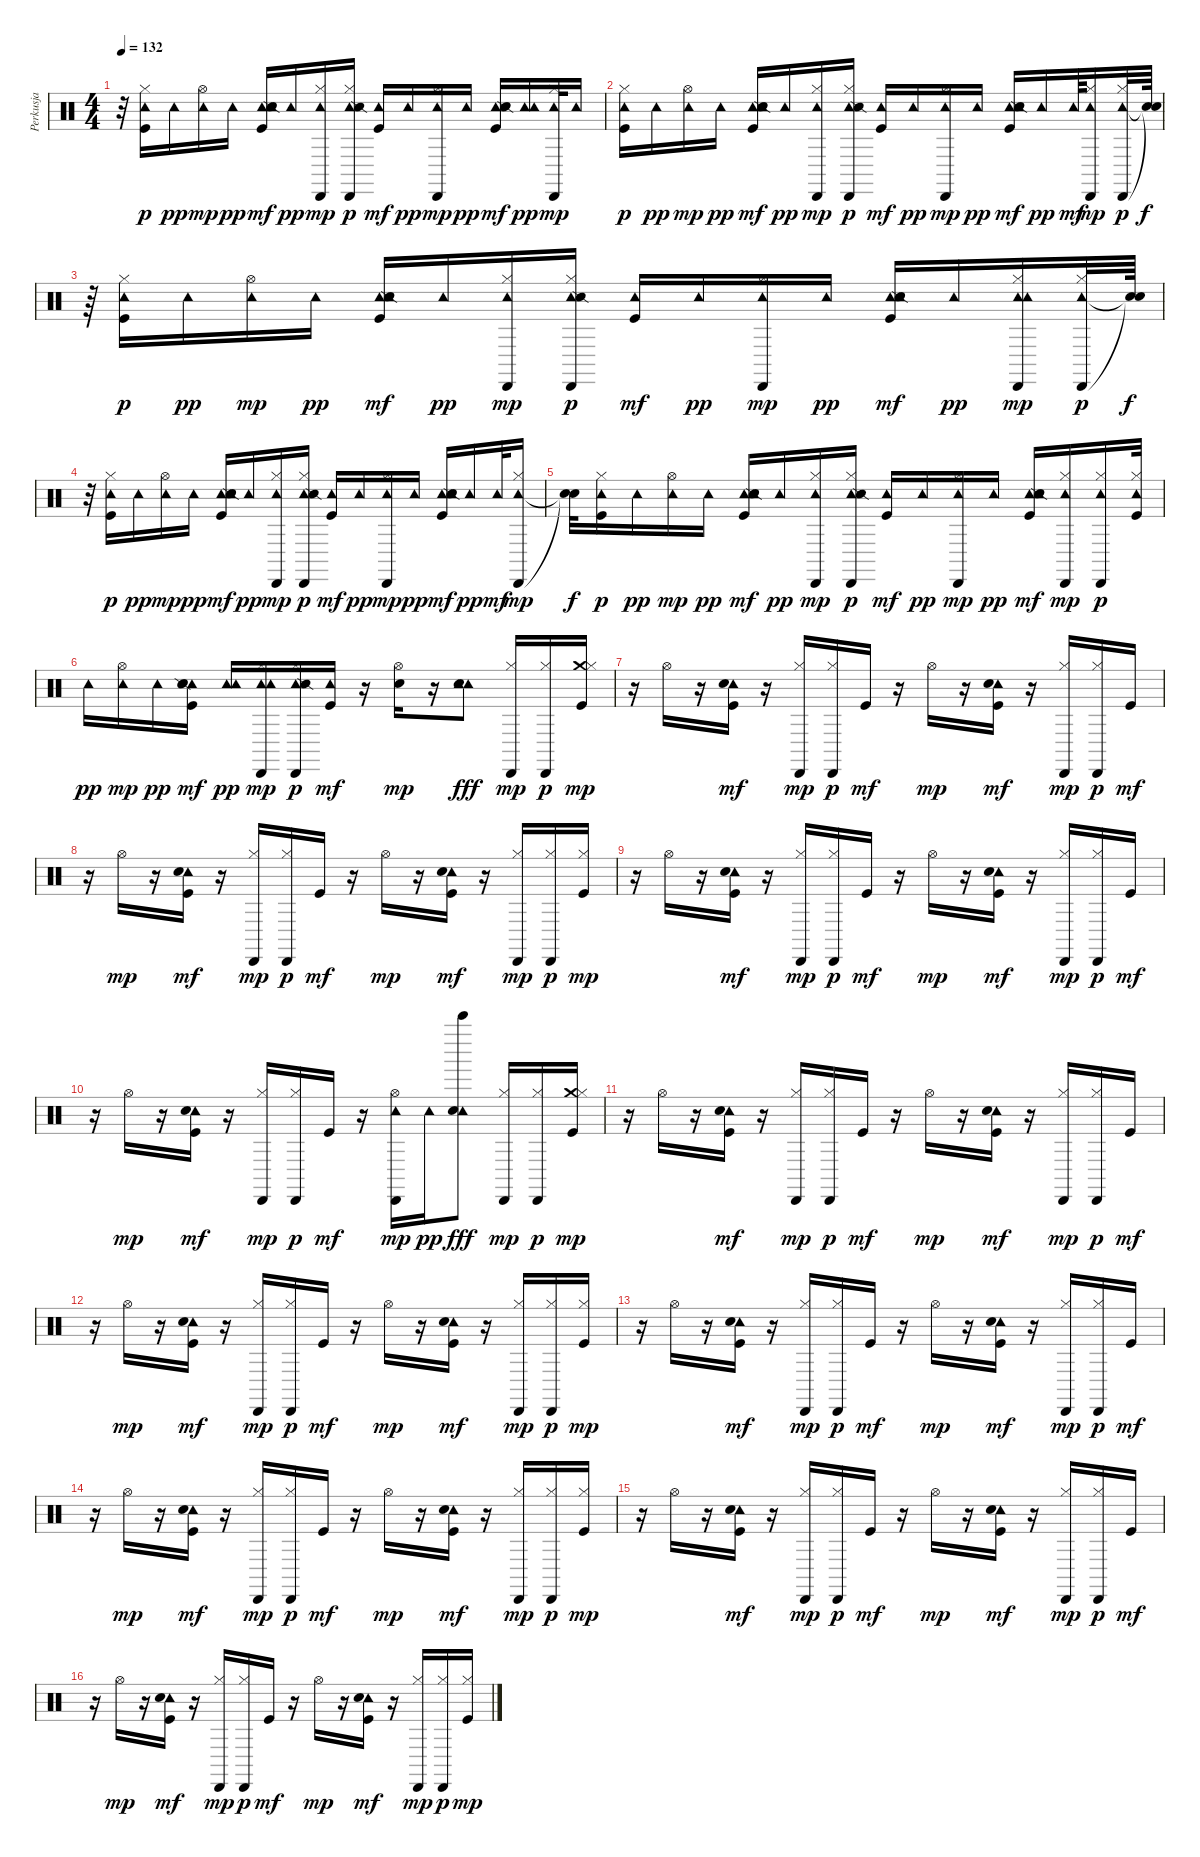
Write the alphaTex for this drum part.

\track ("Perkusja" "Perkusja") {instrument percussion}
\staff {score}
\articulation defaults
\ts (4 4)
\tempo 132
\clef neutral
\ks c
r.32{dy f} ("Tambourine (hit)" "Kick (hit)" "Hi-Hat (closed)").16{dy p} "Tambourine (hit)".16{dy pp} ("Tambourine (hit)" "Hi-Hat (open)").16{dy mp} "Tambourine (hit)".16{dy pp} ("Tambourine (hit)" "Snare (hit) 2" "Snare (side stick) 2" "Kick (hit)" "Tambourine (hit)").16{dy mf} "Tambourine (hit)".16{dy pp} ("Tambourine (hit)" "Cabasa (hit)" "Hi-Hat (closed)").16{dy mp} ("Tambourine (hit)" "Snare (side stick) 2" "Cabasa (hit)" "Hi-Hat (closed)").16{dy p} ("Tambourine (hit)" "Kick (hit)").16{dy mf} "Tambourine (hit)".16{dy pp} ("Tambourine (hit)" "Cabasa (hit)" "Hi-Hat (open)").16{dy mp} "Tambourine (hit)".16{dy pp} ("Tambourine (hit)" "Snare (hit) 2" "Snare (side stick) 2" "Kick (hit)").16{dy mf} ("Tambourine (hit)" "Tambourine (hit)").16{dy pp} ("Tambourine (hit)" "Cabasa (hit)" "Hi-Hat (closed)").32{dy mp} "Tambourine (hit)".16 |
("Tambourine (hit)" "Kick (hit)" "Hi-Hat (closed)").16{dy p} "Tambourine (hit)".16{dy pp} ("Tambourine (hit)" "Hi-Hat (open)").16{dy mp} "Tambourine (hit)".16{dy pp} ("Tambourine (hit)" "Tambourine (hit)" "Snare (hit) 2" "Snare (side stick) 2" "Kick (hit)").16{dy mf} "Tambourine (hit)".16{dy pp} ("Tambourine (hit)" "Cabasa (hit)" "Hi-Hat (closed)").16{dy mp} ("Tambourine (hit)" "Snare (side stick) 2" "Cabasa (hit)" "Hi-Hat (closed)").16{dy p} ("Tambourine (hit)" "Kick (hit)").16{dy mf} "Tambourine (hit)".16{dy pp} ("Tambourine (hit)" "Cabasa (hit)" "Hi-Hat (open)").16{dy mp} "Tambourine (hit)".16{dy pp} ("Tambourine (hit)" "Snare (hit) 2" "Snare (side stick) 2" "Kick (hit)" "Tambourine (hit)").16{dy mf} "Tambourine (hit)".16{dy pp} "Tambourine (hit)".64{dy mf} ("Tambourine (hit)" "Cabasa (hit)" "Hi-Hat (closed)").16{dy mp} ("Tambourine (hit)" "Cabasa (hit)" "Hi-Hat (closed)").32{dy p} ("Snare (hit)"{t} "Snare (hit)"{t}).64{dy f} |
r.64 ("Tambourine (hit)" "Kick (hit)" "Hi-Hat (closed)").16{dy p} "Tambourine (hit)".16{dy pp} ("Tambourine (hit)" "Hi-Hat (open)").16{dy mp} "Tambourine (hit)".16{dy pp} ("Tambourine (hit)" "Snare (hit) 2" "Snare (side stick) 2" "Kick (hit)" "Tambourine (hit)").16{dy mf} "Tambourine (hit)".16{dy pp} ("Tambourine (hit)" "Cabasa (hit)" "Hi-Hat (closed)").16{dy mp} ("Tambourine (hit)" "Snare (side stick) 2" "Cabasa (hit)" "Hi-Hat (closed)").16{dy p} ("Tambourine (hit)" "Kick (hit)").16{dy mf} "Tambourine (hit)".16{dy pp} ("Tambourine (hit)" "Cabasa (hit)" "Hi-Hat (open)").16{dy mp} "Tambourine (hit)".16{dy pp} ("Tambourine (hit)" "Snare (hit) 2" "Snare (side stick) 2" "Kick (hit)" "Tambourine (hit)").16{dy mf} "Tambourine (hit)".16{dy pp} ("Tambourine (hit)" "Tambourine (hit)" "Cabasa (hit)" "Hi-Hat (closed)").16{dy mp} ("Tambourine (hit)" "Cabasa (hit)" "Hi-Hat (closed)").32{dy p} ("Snare (hit)"{t} "Snare (hit)"{t}).64{dy f} |
r.32 ("Tambourine (hit)" "Kick (hit)" "Hi-Hat (closed)").16{dy p} "Tambourine (hit)".16{dy pp} ("Tambourine (hit)" "Hi-Hat (open)").16{dy mp} "Tambourine (hit)".16{dy pp} ("Tambourine (hit)" "Snare (hit) 2" "Snare (side stick) 2" "Kick (hit)" "Tambourine (hit)").16{dy mf} "Tambourine (hit)".16{dy pp} ("Tambourine (hit)" "Cabasa (hit)" "Hi-Hat (closed)").16{dy mp} ("Tambourine (hit)" "Snare (side stick) 2" "Cabasa (hit)" "Hi-Hat (closed)").16{dy p} ("Tambourine (hit)" "Kick (hit)").16{dy mf} "Tambourine (hit)".16{dy pp} ("Tambourine (hit)" "Cabasa (hit)" "Hi-Hat (open)").16{dy mp} "Tambourine (hit)".16{dy pp} ("Tambourine (hit)" "Tambourine (hit)" "Snare (hit) 2" "Snare (side stick) 2" "Kick (hit)").16{dy mf} "Tambourine (hit)".16{dy pp} "Tambourine (hit)".32{dy mf} ("Tambourine (hit)" "Cabasa (hit)" "Hi-Hat (closed)").16{dy mp} |
("Snare (hit)"{t} "Snare (hit)"{t}).32{dy f} ("Tambourine (hit)" "Kick (hit)" "Hi-Hat (closed)").16{dy p} "Tambourine (hit)".16{dy pp} ("Tambourine (hit)" "Hi-Hat (open)").16{dy mp} "Tambourine (hit)".16{dy pp} ("Tambourine (hit)" "Snare (hit) 2" "Snare (side stick) 2" "Kick (hit)" "Tambourine (hit)").16{dy mf} "Tambourine (hit)".16{dy pp} ("Tambourine (hit)" "Cabasa (hit)" "Hi-Hat (closed)").16{dy mp} ("Tambourine (hit)" "Snare (side stick) 2" "Cabasa (hit)" "Hi-Hat (closed)").16{dy p} ("Tambourine (hit)" "Kick (hit)").16{dy mf} "Tambourine (hit)".16{dy pp} ("Tambourine (hit)" "Cabasa (hit)" "Hi-Hat (open)").16{dy mp} "Tambourine (hit)".16{dy pp} ("Tambourine (hit)" "Snare (hit) 2" "Snare (side stick) 2" "Kick (hit)" "Tambourine (hit)").16{dy mf} ("Tambourine (hit)" "Cabasa (hit)" "Hi-Hat (closed)").16{dy mp} ("Tambourine (hit)" "Cabasa (hit)" "Hi-Hat (closed)").16{dy p} ("Tambourine (hit)" "Kick (hit)" "Hi-Hat (closed)").32 |
"Tambourine (hit)".16{dy pp} ("Tambourine (hit)" "Hi-Hat (open)").16{dy mp} "Tambourine (hit)".16{dy pp} ("Tambourine (hit)" "Snare (hit) 2" "Snare (side stick) 2" "Kick (hit)").16{dy mf} ("Tambourine (hit)" "Tambourine (hit)").16{dy pp} ("Tambourine (hit)" "Tambourine (hit)" "Cabasa (hit)" "Hi-Hat (closed)").16{dy mp} ("Tambourine (hit)" "Snare (side stick) 2" "Cabasa (hit)" "Hi-Hat (closed)").16{dy p} ("Tambourine (hit)" "Kick (hit)").16{dy mf} r.16 ("Snare (hit) 2" "Hi-Hat (open)").16{dy mp} r.16 ("Tambourine (hit)" "Tambourine (hit)" "Snare (hit) 2").8{dy fff} ("Cabasa (hit)" "Hi-Hat (closed)").16{dy mp} ("Cabasa (hit)" "Hi-Hat (closed)").16{dy p} ("Crash medium (hit)" "Kick (hit)" "Hi-Hat (closed)").16{dy mp} |
r.16 "Hi-Hat (open)".16 r.16 ("Tambourine (hit)" "Snare (hit) 2" "Kick (hit)").16{dy mf} r.16 ("Cabasa (hit)" "Hi-Hat (closed)").16{dy mp} ("Cabasa (hit)" "Hi-Hat (closed)").16{dy p} "Kick (hit)".16{dy mf} r.16 "Hi-Hat (open)".16{dy mp} r.16 ("Tambourine (hit)" "Snare (hit) 2" "Kick (hit)").16{dy mf} r.16 ("Cabasa (hit)" "Hi-Hat (closed)").16{dy mp} ("Cabasa (hit)" "Hi-Hat (closed)").16{dy p} "Kick (hit)".16{dy mf} |
r.16 "Hi-Hat (open)".16{dy mp} r.16 ("Tambourine (hit)" "Snare (hit) 2" "Kick (hit)").16{dy mf} r.16 ("Cabasa (hit)" "Hi-Hat (closed)").16{dy mp} ("Cabasa (hit)" "Hi-Hat (closed)").16{dy p} "Kick (hit)".16{dy mf} r.16 "Hi-Hat (open)".16{dy mp} r.16 ("Tambourine (hit)" "Snare (hit) 2" "Kick (hit)").16{dy mf} r.16 ("Cabasa (hit)" "Hi-Hat (closed)").16{dy mp} ("Cabasa (hit)" "Hi-Hat (closed)").16{dy p} ("Kick (hit)" "Hi-Hat (closed)").16{dy mp} |
r.16 "Hi-Hat (open)".16 r.16 ("Tambourine (hit)" "Snare (hit) 2" "Kick (hit)").16{dy mf} r.16 ("Cabasa (hit)" "Hi-Hat (closed)").16{dy mp} ("Cabasa (hit)" "Hi-Hat (closed)").16{dy p} "Kick (hit)".16{dy mf} r.16 "Hi-Hat (open)".16{dy mp} r.16 ("Tambourine (hit)" "Snare (hit) 2" "Kick (hit)").16{dy mf} r.16 ("Cabasa (hit)" "Hi-Hat (closed)").16{dy mp} ("Cabasa (hit)" "Hi-Hat (closed)").16{dy p} "Kick (hit)".16{dy mf} |
r.16 "Hi-Hat (open)".16{dy mp} r.16 ("Tambourine (hit)" "Snare (hit) 2" "Kick (hit)").16{dy mf} r.16 ("Cabasa (hit)" "Hi-Hat (closed)").16{dy mp} ("Cabasa (hit)" "Hi-Hat (closed)").16{dy p} "Kick (hit)".16{dy mf} r.16 ("Tambourine (hit)" "Cabasa (hit)" "Hi-Hat (open)").16{dy mp} "Tambourine (hit)".16{dy pp} ("Bell Tree (hit)" "Tambourine (hit)" "Snare (hit) 2").8{dy fff} ("Cabasa (hit)" "Hi-Hat (closed)").16{dy mp} ("Cabasa (hit)" "Hi-Hat (closed)").16{dy p} ("Crash medium (hit)" "Kick (hit)" "Hi-Hat (closed)").16{dy mp} |
r.16 "Hi-Hat (open)".16 r.16 ("Tambourine (hit)" "Snare (hit) 2" "Kick (hit)").16{dy mf} r.16 ("Cabasa (hit)" "Hi-Hat (closed)").16{dy mp} ("Cabasa (hit)" "Hi-Hat (closed)").16{dy p} "Kick (hit)".16{dy mf} r.16 "Hi-Hat (open)".16{dy mp} r.16 ("Tambourine (hit)" "Snare (hit) 2" "Kick (hit)").16{dy mf} r.16 ("Cabasa (hit)" "Hi-Hat (closed)").16{dy mp} ("Cabasa (hit)" "Hi-Hat (closed)").16{dy p} "Kick (hit)".16{dy mf} |
r.16 "Hi-Hat (open)".16{dy mp} r.16 ("Tambourine (hit)" "Snare (hit) 2" "Kick (hit)").16{dy mf} r.16 ("Cabasa (hit)" "Hi-Hat (closed)").16{dy mp} ("Cabasa (hit)" "Hi-Hat (closed)").16{dy p} "Kick (hit)".16{dy mf} r.16 "Hi-Hat (open)".16{dy mp} r.16 ("Tambourine (hit)" "Snare (hit) 2" "Kick (hit)").16{dy mf} r.16 ("Cabasa (hit)" "Hi-Hat (closed)").16{dy mp} ("Cabasa (hit)" "Hi-Hat (closed)").16{dy p} ("Kick (hit)" "Hi-Hat (closed)").16{dy mp} |
r.16 "Hi-Hat (open)".16 r.16 ("Tambourine (hit)" "Snare (hit) 2" "Kick (hit)").16{dy mf} r.16 ("Cabasa (hit)" "Hi-Hat (closed)").16{dy mp} ("Cabasa (hit)" "Hi-Hat (closed)").16{dy p} "Kick (hit)".16{dy mf} r.16 "Hi-Hat (open)".16{dy mp} r.16 ("Tambourine (hit)" "Snare (hit) 2" "Kick (hit)").16{dy mf} r.16 ("Cabasa (hit)" "Hi-Hat (closed)").16{dy mp} ("Cabasa (hit)" "Hi-Hat (closed)").16{dy p} "Kick (hit)".16{dy mf} |
r.16 "Hi-Hat (open)".16{dy mp} r.16 ("Tambourine (hit)" "Snare (hit) 2" "Kick (hit)").16{dy mf} r.16 ("Cabasa (hit)" "Hi-Hat (closed)").16{dy mp} ("Cabasa (hit)" "Hi-Hat (closed)").16{dy p} "Kick (hit)".16{dy mf} r.16 "Hi-Hat (open)".16{dy mp} r.16 ("Tambourine (hit)" "Snare (hit) 2" "Kick (hit)").16{dy mf} r.16 ("Cabasa (hit)" "Hi-Hat (closed)").16{dy mp} ("Cabasa (hit)" "Hi-Hat (closed)").16{dy p} ("Kick (hit)" "Hi-Hat (closed)").16{dy mp} |
r.16 "Hi-Hat (open)".16 r.16 ("Tambourine (hit)" "Snare (hit) 2" "Kick (hit)").16{dy mf} r.16 ("Cabasa (hit)" "Hi-Hat (closed)").16{dy mp} ("Cabasa (hit)" "Hi-Hat (closed)").16{dy p} "Kick (hit)".16{dy mf} r.16 "Hi-Hat (open)".16{dy mp} r.16 ("Tambourine (hit)" "Snare (hit) 2" "Kick (hit)").16{dy mf} r.16 ("Cabasa (hit)" "Hi-Hat (closed)").16{dy mp} ("Cabasa (hit)" "Hi-Hat (closed)").16{dy p} "Kick (hit)".16{dy mf} |
r.16 "Hi-Hat (open)".16{dy mp} r.16 ("Tambourine (hit)" "Snare (hit) 2" "Kick (hit)").16{dy mf} r.16 ("Cabasa (hit)" "Hi-Hat (closed)").16{dy mp} ("Cabasa (hit)" "Hi-Hat (closed)").16{dy p} "Kick (hit)".16{dy mf} r.16 "Hi-Hat (open)".16{dy mp} r.16 ("Tambourine (hit)" "Snare (hit) 2" "Kick (hit)").16{dy mf} r.16 ("Cabasa (hit)" "Hi-Hat (closed)").16{dy mp} ("Cabasa (hit)" "Hi-Hat (closed)").16{dy p} ("Kick (hit)" "Hi-Hat (closed)").16{dy mp}
